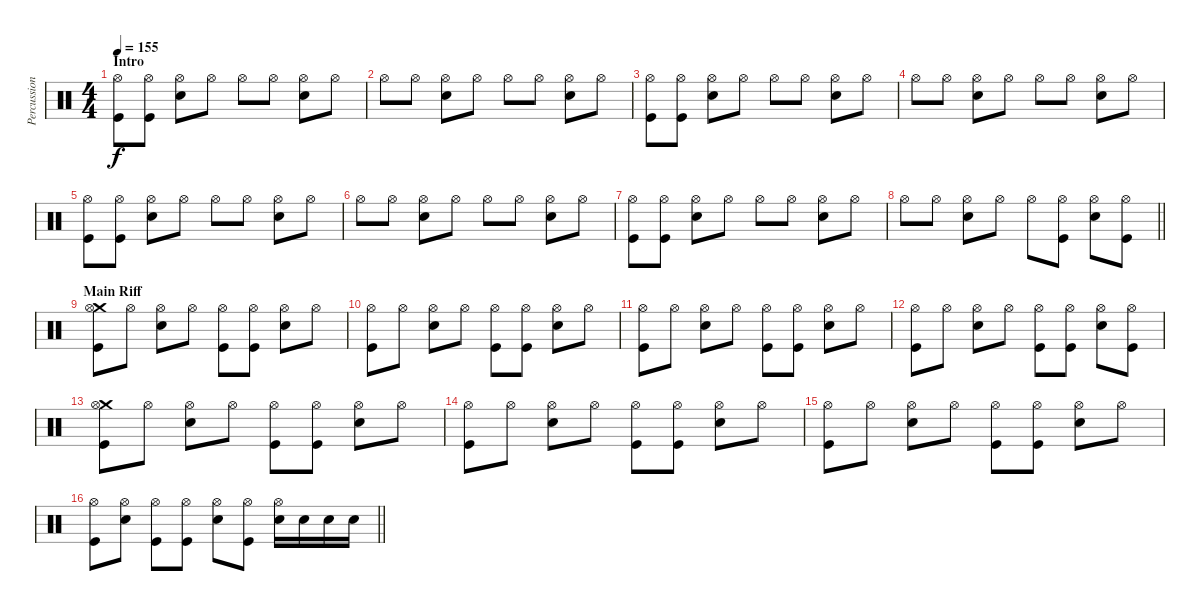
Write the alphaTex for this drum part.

\track ("Percussion" "Percussion") {instrument percussion}
\staff {score}
\articulation defaults
\ts (4 4)
\section ("" "Intro")
\tempo 155
\clef neutral
\ks c
("Hi-Hat (open)" "Kick (hit)").8{dy f} ("Hi-Hat (open)" "Kick (hit)").8 ("Hi-Hat (open)" "Electric Snare (hit)").8 "Hi-Hat (open)".8 "Hi-Hat (open)".8 "Hi-Hat (open)".8 ("Hi-Hat (open)" "Electric Snare (hit)").8 "Hi-Hat (open)".8 |
"Hi-Hat (open)".8 "Hi-Hat (open)".8 ("Hi-Hat (open)" "Electric Snare (hit)").8 "Hi-Hat (open)".8 "Hi-Hat (open)".8 "Hi-Hat (open)".8 ("Hi-Hat (open)" "Electric Snare (hit)").8 "Hi-Hat (open)".8 |
("Hi-Hat (open)" "Kick (hit)").8 ("Hi-Hat (open)" "Kick (hit)").8 ("Hi-Hat (open)" "Electric Snare (hit)").8 "Hi-Hat (open)".8 "Hi-Hat (open)".8 "Hi-Hat (open)".8 ("Hi-Hat (open)" "Electric Snare (hit)").8 "Hi-Hat (open)".8 |
"Hi-Hat (open)".8 "Hi-Hat (open)".8 ("Hi-Hat (open)" "Electric Snare (hit)").8 "Hi-Hat (open)".8 "Hi-Hat (open)".8 "Hi-Hat (open)".8 ("Hi-Hat (open)" "Electric Snare (hit)").8 "Hi-Hat (open)".8 |
("Hi-Hat (open)" "Kick (hit)").8 ("Hi-Hat (open)" "Kick (hit)").8 ("Hi-Hat (open)" "Electric Snare (hit)").8 "Hi-Hat (open)".8 "Hi-Hat (open)".8 "Hi-Hat (open)".8 ("Hi-Hat (open)" "Electric Snare (hit)").8 "Hi-Hat (open)".8 |
"Hi-Hat (open)".8 "Hi-Hat (open)".8 ("Hi-Hat (open)" "Electric Snare (hit)").8 "Hi-Hat (open)".8 "Hi-Hat (open)".8 "Hi-Hat (open)".8 ("Hi-Hat (open)" "Electric Snare (hit)").8 "Hi-Hat (open)".8 |
("Hi-Hat (open)" "Kick (hit)").8 ("Hi-Hat (open)" "Kick (hit)").8 ("Hi-Hat (open)" "Electric Snare (hit)").8 "Hi-Hat (open)".8 "Hi-Hat (open)".8 "Hi-Hat (open)".8 ("Hi-Hat (open)" "Electric Snare (hit)").8 "Hi-Hat (open)".8 |
\barLineRight lightlight "Hi-Hat (open)".8 "Hi-Hat (open)".8
("Hi-Hat (open)" "Electric Snare (hit)").8 "Hi-Hat (open)".8 "Hi-Hat (open)".8 ("Hi-Hat (open)" "Kick (hit)").8 ("Hi-Hat (open)" "Electric Snare (hit)").8 ("Hi-Hat (open)" "Kick (hit)").8 |
\section ("" "Main Riff")
("Crash medium (hit)" "Hi-Hat (open)" "Kick (hit)").8 "Hi-Hat (open)".8 ("Hi-Hat (open)" "Electric Snare (hit)").8 "Hi-Hat (open)".8 ("Hi-Hat (open)" "Kick (hit)").8 ("Hi-Hat (open)" "Kick (hit)").8 ("Hi-Hat (open)" "Electric Snare (hit)").8 "Hi-Hat (open)".8 |
("Hi-Hat (open)" "Kick (hit)").8 "Hi-Hat (open)".8 ("Hi-Hat (open)" "Electric Snare (hit)").8 "Hi-Hat (open)".8 ("Hi-Hat (open)" "Kick (hit)").8 ("Hi-Hat (open)" "Kick (hit)").8 ("Hi-Hat (open)" "Electric Snare (hit)").8 "Hi-Hat (open)".8 |
("Hi-Hat (open)" "Kick (hit)").8 "Hi-Hat (open)".8 ("Hi-Hat (open)" "Electric Snare (hit)").8 "Hi-Hat (open)".8 ("Hi-Hat (open)" "Kick (hit)").8 ("Hi-Hat (open)" "Kick (hit)").8 ("Hi-Hat (open)" "Electric Snare (hit)").8 "Hi-Hat (open)".8 |
("Hi-Hat (open)" "Kick (hit)").8 "Hi-Hat (open)".8 ("Hi-Hat (open)" "Electric Snare (hit)").8 "Hi-Hat (open)".8 ("Hi-Hat (open)" "Kick (hit)").8 ("Hi-Hat (open)" "Kick (hit)").8 ("Hi-Hat (open)" "Electric Snare (hit)").8 ("Hi-Hat (open)" "Kick (hit)").8 |
("Crash medium (hit)" "Hi-Hat (open)" "Kick (hit)").8 "Hi-Hat (open)".8 ("Hi-Hat (open)" "Electric Snare (hit)").8 "Hi-Hat (open)".8 ("Hi-Hat (open)" "Kick (hit)").8 ("Hi-Hat (open)" "Kick (hit)").8 ("Hi-Hat (open)" "Electric Snare (hit)").8 "Hi-Hat (open)".8 |
("Hi-Hat (open)" "Kick (hit)").8 "Hi-Hat (open)".8 ("Hi-Hat (open)" "Electric Snare (hit)").8 "Hi-Hat (open)".8 ("Hi-Hat (open)" "Kick (hit)").8 ("Hi-Hat (open)" "Kick (hit)").8 ("Hi-Hat (open)" "Electric Snare (hit)").8 "Hi-Hat (open)".8 |
("Hi-Hat (open)" "Kick (hit)").8 "Hi-Hat (open)".8 ("Hi-Hat (open)" "Electric Snare (hit)").8 "Hi-Hat (open)".8 ("Hi-Hat (open)" "Kick (hit)").8 ("Hi-Hat (open)" "Kick (hit)").8 ("Hi-Hat (open)" "Electric Snare (hit)").8 "Hi-Hat (open)".8 |
\barLineRight lightlight
("Hi-Hat (open)" "Kick (hit)").8 ("Hi-Hat (open)" "Electric Snare (hit)").8 ("Hi-Hat (open)" "Kick (hit)").8 ("Hi-Hat (open)" "Kick (hit)").8 ("Hi-Hat (open)" "Electric Snare (hit)").8 ("Hi-Hat (open)" "Kick (hit)").8 ("Hi-Hat (open)" "Electric Snare (hit)").16 "Electric Snare (hit)".16 "Electric Snare (hit)".16 "Electric Snare (hit)".16
